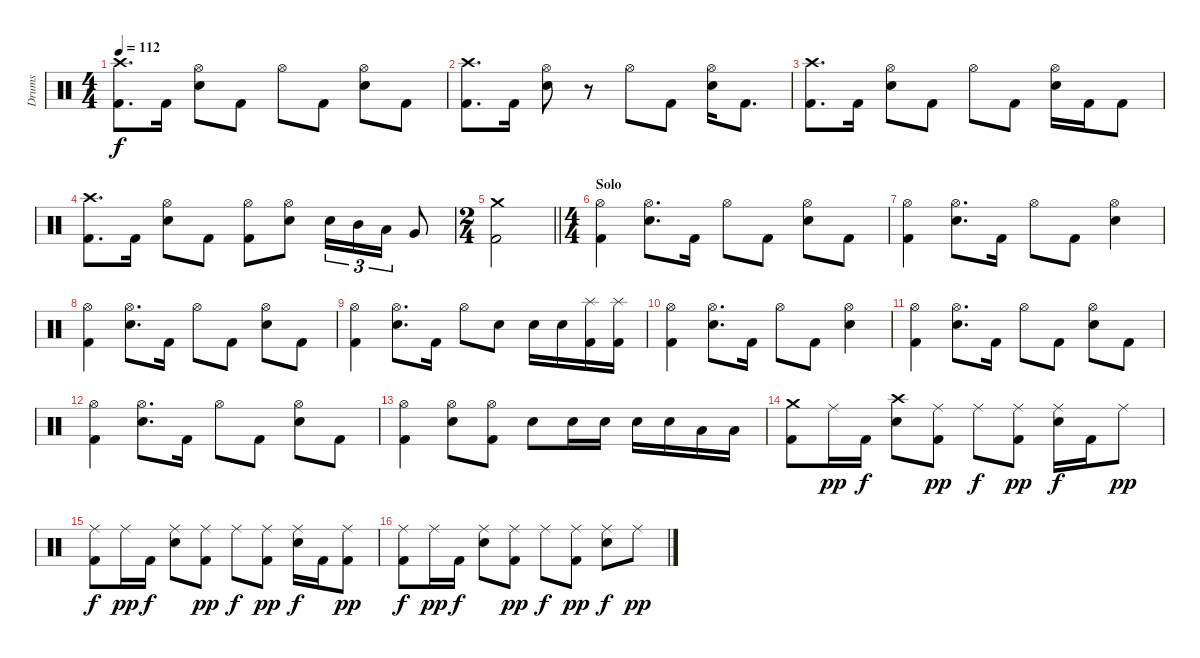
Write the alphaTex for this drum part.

\track ("Drums" "Drums") {instrument percussion}
\staff {score}
\articulation defaults
\ts (4 4)
\tempo 112
\clef neutral
\ks c
("Crash high (hit)" "Kick (hit) 2").8{d dy f} "Kick (hit) 2".16 ("Hi-Hat (open)" "Electric Snare (hit)").8 "Kick (hit) 2".8 "Hi-Hat (open)".8 "Kick (hit) 2".8 ("Hi-Hat (open)" "Electric Snare (hit)").8 "Kick (hit) 2".8 |
("Crash high (hit)" "Kick (hit) 2").8{d} "Kick (hit) 2".16 ("Hi-Hat (open)" "Electric Snare (hit)").8 r.8 "Hi-Hat (open)".8 "Kick (hit) 2".8 ("Hi-Hat (open)" "Electric Snare (hit)").16 "Kick (hit) 2".8{d} |
("Crash high (hit)" "Kick (hit) 2").8{d} "Kick (hit) 2".16 ("Hi-Hat (open)" "Electric Snare (hit)").8 "Kick (hit) 2".8 "Hi-Hat (open)".8 "Kick (hit) 2".8 ("Hi-Hat (open)" "Electric Snare (hit)").16 "Kick (hit) 2".16 "Kick (hit) 2".8 |
("Crash high (hit)" "Kick (hit) 2").8{d} "Kick (hit) 2".16 ("Hi-Hat (open)" "Electric Snare (hit)").8 "Kick (hit) 2".8 ("Hi-Hat (open)" "Kick (hit) 2").8 ("Hi-Hat (open)" "Electric Snare (hit)").8 "Electric Snare (hit)".16{tu (3 2)} "Mid Tom (hit)".16{tu (3 2)} "Low Tom (hit)".16{tu (3 2)} "Very Low Tom (hit)".8 |
\ts (2 4)
\barLineRight lightlight
("Crash medium (hit)" "Kick (hit) 2").2 |
\ts (4 4)
\section ("" "Solo")
("Hi-Hat (open)" "Kick (hit) 2").4 ("Hi-Hat (open)" "Electric Snare (hit)").8{d} "Kick (hit) 2".16 "Hi-Hat (open)".8 "Kick (hit) 2".8 ("Hi-Hat (open)" "Electric Snare (hit)").8 "Kick (hit) 2".8 |
("Hi-Hat (open)" "Kick (hit) 2").4 ("Hi-Hat (open)" "Electric Snare (hit)").8{d} "Kick (hit) 2".16 "Hi-Hat (open)".8 "Kick (hit) 2".8 ("Hi-Hat (open)" "Electric Snare (hit)").4 |
("Hi-Hat (open)" "Kick (hit) 2").4 ("Hi-Hat (open)" "Electric Snare (hit)").8{d} "Kick (hit) 2".16 "Hi-Hat (open)".8 "Kick (hit) 2".8 ("Hi-Hat (open)" "Electric Snare (hit)").8 "Kick (hit) 2".8 |
("Hi-Hat (open)" "Kick (hit) 2").4 ("Hi-Hat (open)" "Electric Snare (hit)").8{d} "Kick (hit) 2".16 "Hi-Hat (open)".8 "Electric Snare (hit)".8 "Electric Snare (hit)".16 "Electric Snare (hit)".16 ("Splash (hit)" "Kick (hit) 2").16 ("Splash (hit)" "Kick (hit) 2").16 |
("Hi-Hat (open)" "Kick (hit) 2").4 ("Hi-Hat (open)" "Electric Snare (hit)").8{d} "Kick (hit) 2".16 "Hi-Hat (open)".8 "Kick (hit) 2".8 ("Hi-Hat (open)" "Electric Snare (hit)").4 |
("Hi-Hat (open)" "Kick (hit) 2").4 ("Hi-Hat (open)" "Electric Snare (hit)").8{d} "Kick (hit) 2".16 "Hi-Hat (open)".8 "Kick (hit) 2".8 ("Hi-Hat (open)" "Electric Snare (hit)").8 "Kick (hit) 2".8 |
("Hi-Hat (open)" "Kick (hit) 2").4 ("Hi-Hat (open)" "Electric Snare (hit)").8{d} "Kick (hit) 2".16 "Hi-Hat (open)".8 "Kick (hit) 2".8 ("Hi-Hat (open)" "Electric Snare (hit)").8 "Kick (hit) 2".8 |
("Hi-Hat (open)" "Kick (hit) 2").4 ("Hi-Hat (open)" "Electric Snare (hit)").8 ("Hi-Hat (open)" "Kick (hit) 2").8 "Electric Snare (hit)".8 "Electric Snare (hit)".16 "Electric Snare (hit)".16 "Electric Snare (hit)".16 "Electric Snare (hit)".16 "Low Tom (hit)".16 "Low Tom (hit)".16 |
("Crash medium (hit)" "Kick (hit) 2").8 "Ride (middle)".16{dy pp} "Kick (hit) 2".16{dy f} ("Crash high (hit)" "Electric Snare (hit)").8 ("Ride (middle)" "Kick (hit) 2").8{dy pp} "Ride (middle)".8{dy f} ("Ride (middle)" "Kick (hit) 2").8{dy pp} ("Ride (middle)" "Electric Snare (hit)").16{dy f} "Kick (hit) 2".16 "Ride (middle)".8{dy pp} |
("Ride (middle)" "Kick (hit) 2").8{dy f} "Ride (middle)".16{dy pp} "Kick (hit) 2".16{dy f} ("Ride (middle)" "Electric Snare (hit)").8 ("Ride (middle)" "Kick (hit) 2").8{dy pp} "Ride (middle)".8{dy f} ("Ride (middle)" "Kick (hit) 2").8{dy pp} ("Ride (middle)" "Electric Snare (hit)").16{dy f} "Kick (hit) 2".16 ("Ride (middle)" "Kick (hit) 2").8{dy pp} |
("Ride (middle)" "Kick (hit) 2").8{dy f} "Ride (middle)".16{dy pp} "Kick (hit) 2".16{dy f} ("Ride (middle)" "Electric Snare (hit)").8 ("Ride (middle)" "Kick (hit) 2").8{dy pp} "Ride (middle)".8{dy f} ("Ride (middle)" "Kick (hit) 2").8{dy pp} ("Ride (middle)" "Electric Snare (hit)").8{dy f} "Ride (middle)".8{dy pp}
